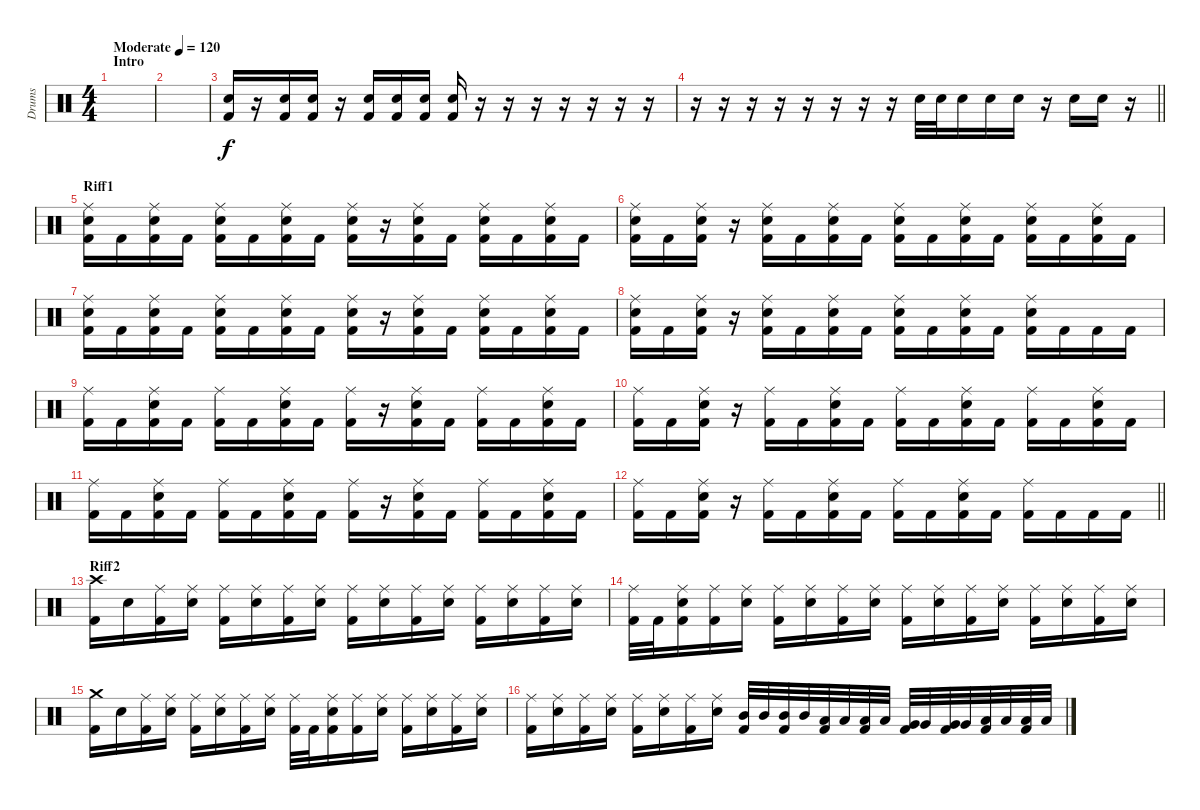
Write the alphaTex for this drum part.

\track ("Drums" "Drums") {instrument percussion}
\staff {score}
\articulation defaults
\ts (4 4)
\section ("" "Intro")
\tempo (120 "Moderate")
\tempo 108
\tempo (120 "Moderate")
\clef neutral
\ks c
|
|
("Kick (hit) 2" "Snare (hit) 2").16 r.16 ("Kick (hit) 2" "Snare (hit) 2").16 ("Kick (hit) 2" "Snare (hit) 2").16 r.16 ("Kick (hit) 2" "Snare (hit) 2").16 ("Kick (hit) 2" "Snare (hit) 2").16 ("Kick (hit) 2" "Snare (hit) 2").16 ("Kick (hit) 2" "Snare (hit) 2").16 r.16 r.16 r.16 r.16 r.16 r.16 r.16 |
\barLineRight lightlight
r.16 r.16 r.16 r.16 r.16 r.16 r.16 r.16 "Snare (hit) 2".32 "Snare (hit) 2".32 "Snare (hit) 2".16 "Snare (hit) 2".16 "Snare (hit) 2".16 r.16 "Snare (hit) 2".16 "Snare (hit) 2".16 r.16 |
\section ("" "Riff1")
("Kick (hit) 2" "Ride (middle)" "Snare (hit) 2").16 "Kick (hit) 2".16 ("Kick (hit) 2" "Ride (middle)" "Snare (hit) 2").16 "Kick (hit) 2".16 ("Kick (hit) 2" "Ride (middle)" "Snare (hit) 2").16 "Kick (hit) 2".16 ("Kick (hit) 2" "Ride (middle)" "Snare (hit) 2").16 "Kick (hit) 2".16 ("Kick (hit) 2" "Ride (middle)" "Snare (hit) 2").16 r.16 ("Kick (hit) 2" "Ride (middle)" "Snare (hit) 2").16 "Kick (hit) 2".16 ("Kick (hit) 2" "Ride (middle)" "Snare (hit) 2").16 "Kick (hit) 2".16 ("Kick (hit) 2" "Ride (middle)" "Snare (hit) 2").16 "Kick (hit) 2".16 |
("Kick (hit) 2" "Ride (middle)" "Snare (hit) 2").16 "Kick (hit) 2".16 ("Kick (hit) 2" "Ride (middle)" "Snare (hit) 2").16 r.16 ("Kick (hit) 2" "Ride (middle)" "Snare (hit) 2").16 "Kick (hit) 2".16 ("Kick (hit) 2" "Ride (middle)" "Snare (hit) 2").16 "Kick (hit) 2".16 ("Kick (hit) 2" "Ride (middle)" "Snare (hit) 2").16 "Kick (hit) 2".16 ("Kick (hit) 2" "Ride (middle)" "Snare (hit) 2").16 "Kick (hit) 2".16 ("Kick (hit) 2" "Ride (middle)" "Snare (hit) 2").16 "Kick (hit) 2".16 ("Kick (hit) 2" "Ride (middle)" "Snare (hit) 2").16 "Kick (hit) 2".16 |
("Kick (hit) 2" "Ride (middle)" "Snare (hit) 2").16 "Kick (hit) 2".16 ("Kick (hit) 2" "Ride (middle)" "Snare (hit) 2").16 "Kick (hit) 2".16 ("Kick (hit) 2" "Ride (middle)" "Snare (hit) 2").16 "Kick (hit) 2".16 ("Kick (hit) 2" "Ride (middle)" "Snare (hit) 2").16 "Kick (hit) 2".16 ("Kick (hit) 2" "Ride (middle)" "Snare (hit) 2").16 r.16 ("Kick (hit) 2" "Ride (middle)" "Snare (hit) 2").16 "Kick (hit) 2".16 ("Kick (hit) 2" "Ride (middle)" "Snare (hit) 2").16 "Kick (hit) 2".16 ("Kick (hit) 2" "Ride (middle)" "Snare (hit) 2").16 "Kick (hit) 2".16 |
("Kick (hit) 2" "Ride (middle)" "Snare (hit) 2").16 "Kick (hit) 2".16 ("Kick (hit) 2" "Ride (middle)" "Snare (hit) 2").16 r.16 ("Kick (hit) 2" "Ride (middle)" "Snare (hit) 2").16 "Kick (hit) 2".16 ("Kick (hit) 2" "Ride (middle)" "Snare (hit) 2").16 "Kick (hit) 2".16 ("Kick (hit) 2" "Ride (middle)" "Snare (hit) 2").16 "Kick (hit) 2".16 ("Kick (hit) 2" "Ride (middle)" "Snare (hit) 2").16 "Kick (hit) 2".16 ("Kick (hit) 2" "Ride (middle)" "Snare (hit) 2").16 "Kick (hit) 2".16 "Kick (hit) 2".16 "Kick (hit) 2".16 |
("Kick (hit) 2" "Ride (middle)").16 "Kick (hit) 2".16 ("Kick (hit) 2" "Ride (middle)" "Snare (hit) 2").16 "Kick (hit) 2".16 ("Kick (hit) 2" "Ride (middle)").16 "Kick (hit) 2".16 ("Kick (hit) 2" "Ride (middle)" "Snare (hit) 2").16 "Kick (hit) 2".16 ("Kick (hit) 2" "Ride (middle)").16 r.16 ("Kick (hit) 2" "Ride (middle)" "Snare (hit) 2").16 "Kick (hit) 2".16 ("Kick (hit) 2" "Ride (middle)").16 "Kick (hit) 2".16 ("Kick (hit) 2" "Ride (middle)" "Snare (hit) 2").16 "Kick (hit) 2".16 |
("Kick (hit) 2" "Ride (middle)").16 "Kick (hit) 2".16 ("Kick (hit) 2" "Ride (middle)" "Snare (hit) 2").16 r.16 ("Kick (hit) 2" "Ride (middle)").16 "Kick (hit) 2".16 ("Kick (hit) 2" "Ride (middle)" "Snare (hit) 2").16 "Kick (hit) 2".16 ("Kick (hit) 2" "Ride (middle)").16 "Kick (hit) 2".16 ("Kick (hit) 2" "Ride (middle)" "Snare (hit) 2").16 "Kick (hit) 2".16 ("Kick (hit) 2" "Ride (middle)").16 "Kick (hit) 2".16 ("Kick (hit) 2" "Ride (middle)" "Snare (hit) 2").16 "Kick (hit) 2".16 |
("Kick (hit) 2" "Ride (middle)").16 "Kick (hit) 2".16 ("Kick (hit) 2" "Ride (middle)" "Snare (hit) 2").16 "Kick (hit) 2".16 ("Kick (hit) 2" "Ride (middle)").16 "Kick (hit) 2".16 ("Kick (hit) 2" "Ride (middle)" "Snare (hit) 2").16 "Kick (hit) 2".16 ("Kick (hit) 2" "Ride (middle)").16 r.16 ("Kick (hit) 2" "Ride (middle)" "Snare (hit) 2").16 "Kick (hit) 2".16 ("Kick (hit) 2" "Ride (middle)").16 "Kick (hit) 2".16 ("Kick (hit) 2" "Ride (middle)" "Snare (hit) 2").16 "Kick (hit) 2".16 |
\barLineRight lightlight
("Kick (hit) 2" "Ride (middle)").16 "Kick (hit) 2".16 ("Kick (hit) 2" "Ride (middle)" "Snare (hit) 2").16 r.16 ("Kick (hit) 2" "Ride (middle)").16 "Kick (hit) 2".16 ("Kick (hit) 2" "Ride (middle)" "Snare (hit) 2").16 "Kick (hit) 2".16 ("Kick (hit) 2" "Ride (middle)").16 "Kick (hit) 2".16 ("Kick (hit) 2" "Ride (middle)" "Snare (hit) 2").16 "Kick (hit) 2".16 ("Kick (hit) 2" "Ride (middle)").16 "Kick (hit) 2".16 "Kick (hit) 2".16 "Kick (hit) 2".16 |
\section ("" "Riff2")
("Kick (hit) 2" "Crash high (hit)").16 "Snare (hit) 2".16 ("Kick (hit) 2" "Ride (middle)").16 ("Ride (middle)" "Snare (hit) 2").16 ("Kick (hit) 2" "Ride (middle)").16 ("Ride (middle)" "Snare (hit) 2").16 ("Kick (hit) 2" "Ride (middle)").16 ("Ride (middle)" "Snare (hit) 2").16 ("Kick (hit) 2" "Ride (middle)").16 ("Ride (middle)" "Snare (hit) 2").16 ("Kick (hit) 2" "Ride (middle)").16 ("Ride (middle)" "Snare (hit) 2").16 ("Kick (hit) 2" "Ride (middle)").16 ("Ride (middle)" "Snare (hit) 2").16 ("Kick (hit) 2" "Ride (middle)").16 ("Ride (middle)" "Snare (hit) 2").16 |
("Kick (hit) 2" "Ride (middle)").32 "Kick (hit) 2".32 ("Kick (hit) 2" "Ride (middle)" "Snare (hit) 2").16 ("Kick (hit) 2" "Ride (middle)").16 ("Ride (middle)" "Snare (hit) 2").16 ("Kick (hit) 2" "Ride (middle)").16 ("Ride (middle)" "Snare (hit) 2").16 ("Kick (hit) 2" "Ride (middle)").16 ("Ride (middle)" "Snare (hit) 2").16 ("Kick (hit) 2" "Ride (middle)").16 ("Ride (middle)" "Snare (hit) 2").16 ("Kick (hit) 2" "Ride (middle)").16 ("Ride (middle)" "Snare (hit) 2").16 ("Kick (hit) 2" "Ride (middle)").16 ("Ride (middle)" "Snare (hit) 2").16 ("Kick (hit) 2" "Ride (middle)").16 ("Ride (middle)" "Snare (hit) 2").16 |
("Kick (hit) 2" "Crash medium (hit)").16 "Snare (hit) 2".16 ("Kick (hit) 2" "Ride (middle)").16 ("Ride (middle)" "Snare (hit) 2").16 ("Kick (hit) 2" "Ride (middle)").16 ("Ride (middle)" "Snare (hit) 2").16 ("Kick (hit) 2" "Ride (middle)").16 ("Ride (middle)" "Snare (hit) 2").16 ("Kick (hit) 2" "Ride (middle)").32 "Kick (hit) 2".32 ("Kick (hit) 2" "Ride (middle)" "Snare (hit) 2").16 ("Kick (hit) 2" "Ride (middle)").16 ("Ride (middle)" "Snare (hit) 2").16 ("Kick (hit) 2" "Ride (middle)").16 ("Ride (middle)" "Snare (hit) 2").16 ("Kick (hit) 2" "Ride (middle)").16 ("Ride (middle)" "Snare (hit) 2").16 |
("Kick (hit) 2" "Ride (middle)").16 ("Ride (middle)" "Snare (hit) 2").16 ("Kick (hit) 2" "Ride (middle)").16 ("Ride (middle)" "Snare (hit) 2").16 ("Kick (hit) 2" "Ride (middle)").16 ("Ride (middle)" "Snare (hit) 2").16 ("Kick (hit) 2" "Ride (middle)").16 ("Ride (middle)" "Snare (hit) 2").16 ("Kick (hit) 2" "Mid Tom (hit)").32 "Mid Tom (hit)".32 ("Kick (hit) 2" "Mid Tom (hit)").32 "Mid Tom (hit)".32 ("Kick (hit) 2" "Low Tom (hit)").32 "Low Tom (hit)".32 ("Kick (hit) 2" "Low Tom (hit)").32 "Low Tom (hit)".32 ("Kick (hit) 2" "Very Low Tom (hit)").32 "Very Low Tom (hit)".32 ("Kick (hit) 2" "Very Low Tom (hit)").32 "Very Low Tom (hit)".32 ("Kick (hit) 2" "Low Floor Tom (hit)").32 "Low Floor Tom (hit)".32 ("Kick (hit) 2" "Low Floor Tom (hit)").32 "Low Floor Tom (hit)".32
